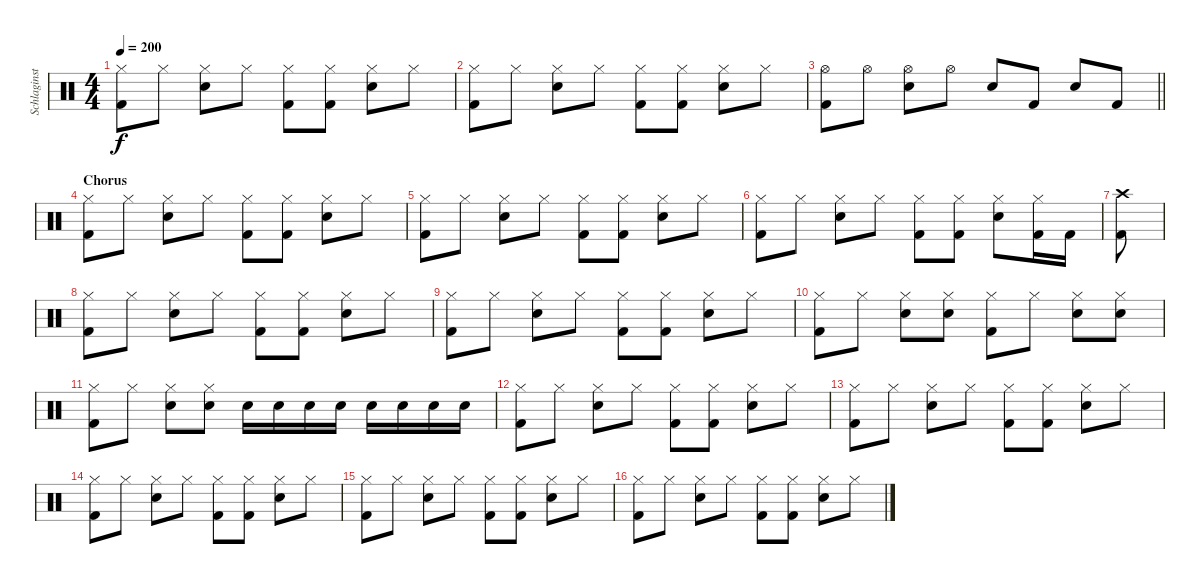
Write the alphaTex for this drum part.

\track ("Schlaginstrumente - Auswahl" "Schlaginst") {instrument percussion}
\staff {score}
\articulation defaults
\ts (4 4)
\tempo 200
\clef neutral
\ks c
("Hi-Hat (closed)" "Kick (hit) 2").8{dy f} "Hi-Hat (closed)".8 ("Hi-Hat (closed)" "Electric Snare (hit)").8 "Hi-Hat (closed)".8 ("Hi-Hat (closed)" "Kick (hit) 2").8 ("Hi-Hat (closed)" "Kick (hit) 2").8 ("Hi-Hat (closed)" "Electric Snare (hit)").8 "Hi-Hat (closed)".8 |
("Hi-Hat (closed)" "Kick (hit) 2").8 "Hi-Hat (closed)".8 ("Hi-Hat (closed)" "Electric Snare (hit)").8 "Hi-Hat (closed)".8 ("Hi-Hat (closed)" "Kick (hit) 2").8 ("Hi-Hat (closed)" "Kick (hit) 2").8 ("Hi-Hat (closed)" "Electric Snare (hit)").8 "Hi-Hat (closed)".8 |
\barLineRight lightlight
("Hi-Hat (open)" "Kick (hit) 2").8 "Hi-Hat (open)".8 ("Hi-Hat (open)" "Electric Snare (hit)").8 "Hi-Hat (open)".8 "Electric Snare (hit)".8 "Kick (hit) 2".8 "Electric Snare (hit)".8 "Kick (hit) 2".8 |
\section ("" "Chorus")
("Hi-Hat (closed)" "Kick (hit) 2").8 "Hi-Hat (closed)".8 ("Hi-Hat (closed)" "Electric Snare (hit)").8 "Hi-Hat (closed)".8 ("Hi-Hat (closed)" "Kick (hit) 2").8 ("Hi-Hat (closed)" "Kick (hit) 2").8 ("Hi-Hat (closed)" "Electric Snare (hit)").8 "Hi-Hat (closed)".8 |
("Hi-Hat (closed)" "Kick (hit) 2").8 "Hi-Hat (closed)".8 ("Hi-Hat (closed)" "Electric Snare (hit)").8 "Hi-Hat (closed)".8 ("Hi-Hat (closed)" "Kick (hit) 2").8 ("Hi-Hat (closed)" "Kick (hit) 2").8 ("Hi-Hat (closed)" "Electric Snare (hit)").8 "Hi-Hat (closed)".8 |
("Hi-Hat (closed)" "Kick (hit) 2").8 "Hi-Hat (closed)".8 ("Hi-Hat (closed)" "Electric Snare (hit)").8 "Hi-Hat (closed)".8 ("Hi-Hat (closed)" "Kick (hit) 2").8 ("Hi-Hat (closed)" "Kick (hit) 2").8 ("Hi-Hat (closed)" "Electric Snare (hit)").8 ("Hi-Hat (closed)" "Kick (hit) 2").16 "Kick (hit) 2".16 |
("Kick (hit) 2" "Crash high (hit)").8 |
("Hi-Hat (closed)" "Kick (hit) 2").8 "Hi-Hat (closed)".8 ("Hi-Hat (closed)" "Electric Snare (hit)").8 "Hi-Hat (closed)".8 ("Hi-Hat (closed)" "Kick (hit) 2").8 ("Hi-Hat (closed)" "Kick (hit) 2").8 ("Hi-Hat (closed)" "Electric Snare (hit)").8 "Hi-Hat (closed)".8 |
("Hi-Hat (closed)" "Kick (hit) 2").8 "Hi-Hat (closed)".8 ("Hi-Hat (closed)" "Electric Snare (hit)").8 "Hi-Hat (closed)".8 ("Hi-Hat (closed)" "Kick (hit) 2").8 ("Hi-Hat (closed)" "Kick (hit) 2").8 ("Hi-Hat (closed)" "Electric Snare (hit)").8 "Hi-Hat (closed)".8 |
("Hi-Hat (closed)" "Kick (hit) 2").8 "Hi-Hat (closed)".8 ("Hi-Hat (closed)" "Electric Snare (hit)").8 ("Hi-Hat (closed)" "Electric Snare (hit)").8 ("Hi-Hat (closed)" "Kick (hit) 2").8 "Hi-Hat (closed)".8 ("Hi-Hat (closed)" "Electric Snare (hit)").8 ("Hi-Hat (closed)" "Electric Snare (hit)").8 |
("Hi-Hat (closed)" "Kick (hit) 2").8 "Hi-Hat (closed)".8 ("Hi-Hat (closed)" "Electric Snare (hit)").8 ("Hi-Hat (closed)" "Electric Snare (hit)").8 "Electric Snare (hit)".16 "Electric Snare (hit)".16 "Electric Snare (hit)".16 "Electric Snare (hit)".16 "Electric Snare (hit)".16 "Electric Snare (hit)".16 "Electric Snare (hit)".16 "Electric Snare (hit)".16 |
("Hi-Hat (closed)" "Kick (hit) 2").8 "Hi-Hat (closed)".8 ("Hi-Hat (closed)" "Electric Snare (hit)").8 "Hi-Hat (closed)".8 ("Hi-Hat (closed)" "Kick (hit) 2").8 ("Hi-Hat (closed)" "Kick (hit) 2").8 ("Hi-Hat (closed)" "Electric Snare (hit)").8 "Hi-Hat (closed)".8 |
("Hi-Hat (closed)" "Kick (hit) 2").8 "Hi-Hat (closed)".8 ("Hi-Hat (closed)" "Electric Snare (hit)").8 "Hi-Hat (closed)".8 ("Hi-Hat (closed)" "Kick (hit) 2").8 ("Hi-Hat (closed)" "Kick (hit) 2").8 ("Hi-Hat (closed)" "Electric Snare (hit)").8 "Hi-Hat (closed)".8 |
("Hi-Hat (closed)" "Kick (hit) 2").8 "Hi-Hat (closed)".8 ("Hi-Hat (closed)" "Electric Snare (hit)").8 "Hi-Hat (closed)".8 ("Hi-Hat (closed)" "Kick (hit) 2").8 ("Hi-Hat (closed)" "Kick (hit) 2").8 ("Hi-Hat (closed)" "Electric Snare (hit)").8 "Hi-Hat (closed)".8 |
("Hi-Hat (closed)" "Kick (hit) 2").8 "Hi-Hat (closed)".8 ("Hi-Hat (closed)" "Electric Snare (hit)").8 "Hi-Hat (closed)".8 ("Hi-Hat (closed)" "Kick (hit) 2").8 ("Hi-Hat (closed)" "Kick (hit) 2").8 ("Hi-Hat (closed)" "Electric Snare (hit)").8 "Hi-Hat (closed)".8 |
("Hi-Hat (closed)" "Kick (hit) 2").8 "Hi-Hat (closed)".8 ("Hi-Hat (closed)" "Electric Snare (hit)").8 "Hi-Hat (closed)".8 ("Hi-Hat (closed)" "Kick (hit) 2").8 ("Hi-Hat (closed)" "Kick (hit) 2").8 ("Hi-Hat (closed)" "Electric Snare (hit)").8 "Hi-Hat (closed)".8
